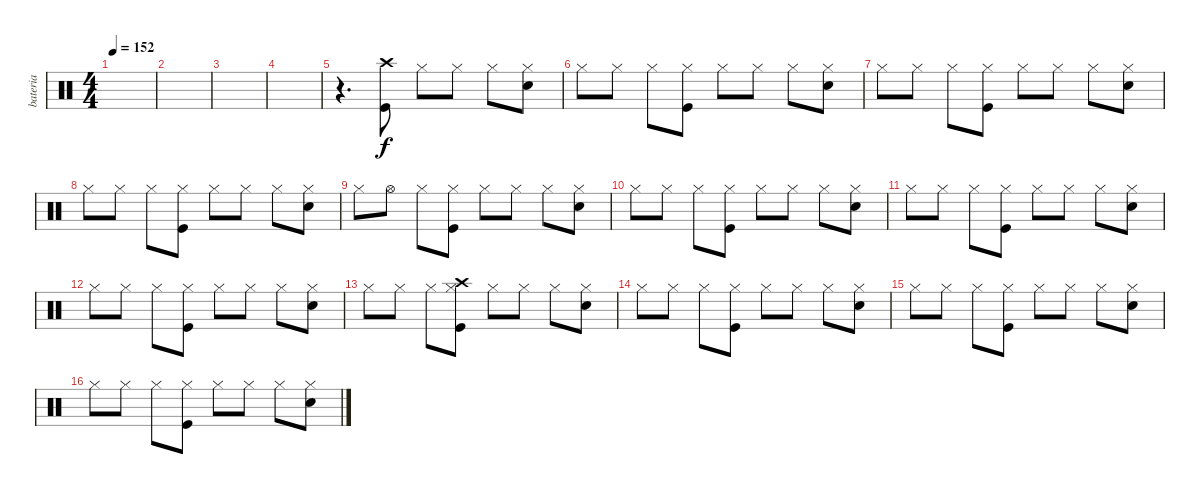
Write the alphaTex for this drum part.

\track ("bateria" "bateria") {instrument percussion}
\staff {score}
\articulation defaults
\ts (4 4)
\tempo 152
\clef neutral
\ks c
|
|
|
|
r.4{d} ("Crash high (hit)" "Kick (hit)").8 "Hi-Hat (closed)".8 "Hi-Hat (closed)".8 "Hi-Hat (closed)".8 ("Hi-Hat (closed)" "Electric Snare (hit)").8 |
"Hi-Hat (closed)".8 "Hi-Hat (closed)".8 "Hi-Hat (closed)".8 ("Hi-Hat (closed)" "Kick (hit)").8 "Hi-Hat (closed)".8 "Hi-Hat (closed)".8 "Hi-Hat (closed)".8 ("Hi-Hat (closed)" "Electric Snare (hit)").8 |
"Hi-Hat (closed)".8 "Hi-Hat (closed)".8 "Hi-Hat (closed)".8 ("Hi-Hat (closed)" "Kick (hit)").8 "Hi-Hat (closed)".8 "Hi-Hat (closed)".8 "Hi-Hat (closed)".8 ("Hi-Hat (closed)" "Electric Snare (hit)").8 |
"Hi-Hat (closed)".8 "Hi-Hat (closed)".8 "Hi-Hat (closed)".8 ("Hi-Hat (closed)" "Kick (hit)").8 "Hi-Hat (closed)".8 "Hi-Hat (closed)".8 "Hi-Hat (closed)".8 ("Hi-Hat (closed)" "Electric Snare (hit)").8 |
"Hi-Hat (closed)".8 "Hi-Hat (open)".8 "Hi-Hat (closed)".8 ("Hi-Hat (closed)" "Kick (hit)").8 "Hi-Hat (closed)".8 "Hi-Hat (closed)".8 "Hi-Hat (closed)".8 ("Hi-Hat (closed)" "Electric Snare (hit)").8 |
"Hi-Hat (closed)".8 "Hi-Hat (closed)".8 "Hi-Hat (closed)".8 ("Hi-Hat (closed)" "Kick (hit)").8 "Hi-Hat (closed)".8 "Hi-Hat (closed)".8 "Hi-Hat (closed)".8 ("Hi-Hat (closed)" "Electric Snare (hit)").8 |
"Hi-Hat (closed)".8 "Hi-Hat (closed)".8 "Hi-Hat (closed)".8 ("Hi-Hat (closed)" "Kick (hit)").8 "Hi-Hat (closed)".8 "Hi-Hat (closed)".8 "Hi-Hat (closed)".8 ("Hi-Hat (closed)" "Electric Snare (hit)").8 |
"Hi-Hat (closed)".8 "Hi-Hat (closed)".8 "Hi-Hat (closed)".8 ("Hi-Hat (closed)" "Kick (hit)").8 "Hi-Hat (closed)".8 "Hi-Hat (closed)".8 "Hi-Hat (closed)".8 ("Hi-Hat (closed)" "Electric Snare (hit)").8 |
"Hi-Hat (closed)".8 "Hi-Hat (closed)".8 "Hi-Hat (closed)".8 ("Hi-Hat (closed)" "Kick (hit)" "Crash high (hit)").8 "Hi-Hat (closed)".8 "Hi-Hat (closed)".8 "Hi-Hat (closed)".8 ("Hi-Hat (closed)" "Electric Snare (hit)").8 |
"Hi-Hat (closed)".8 "Hi-Hat (closed)".8 "Hi-Hat (closed)".8 ("Hi-Hat (closed)" "Kick (hit)").8 "Hi-Hat (closed)".8 "Hi-Hat (closed)".8 "Hi-Hat (closed)".8 ("Hi-Hat (closed)" "Electric Snare (hit)").8 |
"Hi-Hat (closed)".8 "Hi-Hat (closed)".8 "Hi-Hat (closed)".8 ("Hi-Hat (closed)" "Kick (hit)").8 "Hi-Hat (closed)".8 "Hi-Hat (closed)".8 "Hi-Hat (closed)".8 ("Hi-Hat (closed)" "Electric Snare (hit)").8 |
"Hi-Hat (closed)".8 "Hi-Hat (closed)".8 "Hi-Hat (closed)".8 ("Hi-Hat (closed)" "Kick (hit)").8 "Hi-Hat (closed)".8 "Hi-Hat (closed)".8 "Hi-Hat (closed)".8 ("Hi-Hat (closed)" "Electric Snare (hit)").8
